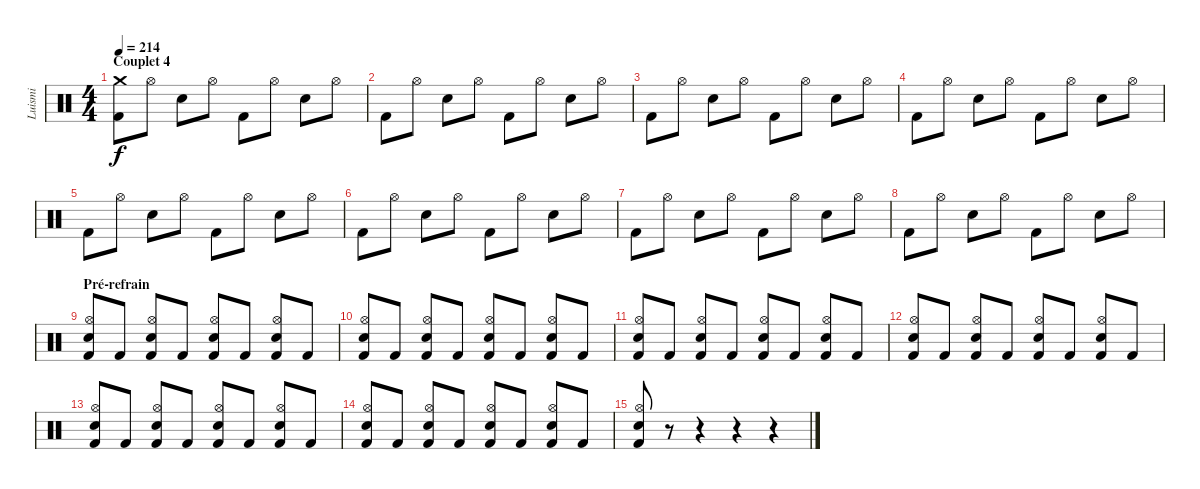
\track ("Luismi" "Luismi") {instrument percussion}
\staff {score}
\articulation defaults
\ts (4 4)
\section ("" "Couplet 4")
\tempo 214
\clef neutral
\ks c
("Crash medium (hit)" "Kick (hit) 2").8{dy f} "Hi-Hat (open)".8 "Snare (hit) 2".8 "Hi-Hat (open)".8 "Kick (hit) 2".8 "Hi-Hat (open)".8 "Snare (hit) 2".8 "Hi-Hat (open)".8 |
"Kick (hit) 2".8 "Hi-Hat (open)".8 "Snare (hit) 2".8 "Hi-Hat (open)".8 "Kick (hit) 2".8 "Hi-Hat (open)".8 "Snare (hit) 2".8 "Hi-Hat (open)".8 |
"Kick (hit) 2".8 "Hi-Hat (open)".8 "Snare (hit) 2".8 "Hi-Hat (open)".8 "Kick (hit) 2".8 "Hi-Hat (open)".8 "Snare (hit) 2".8 "Hi-Hat (open)".8 |
"Kick (hit) 2".8 "Hi-Hat (open)".8 "Snare (hit) 2".8 "Hi-Hat (open)".8 "Kick (hit) 2".8 "Hi-Hat (open)".8 "Snare (hit) 2".8 "Hi-Hat (open)".8 |
"Kick (hit) 2".8 "Hi-Hat (open)".8 "Snare (hit) 2".8 "Hi-Hat (open)".8 "Kick (hit) 2".8 "Hi-Hat (open)".8 "Snare (hit) 2".8 "Hi-Hat (open)".8 |
"Kick (hit) 2".8 "Hi-Hat (open)".8 "Snare (hit) 2".8 "Hi-Hat (open)".8 "Kick (hit) 2".8 "Hi-Hat (open)".8 "Snare (hit) 2".8 "Hi-Hat (open)".8 |
"Kick (hit) 2".8 "Hi-Hat (open)".8 "Snare (hit) 2".8 "Hi-Hat (open)".8 "Kick (hit) 2".8 "Hi-Hat (open)".8 "Snare (hit) 2".8 "Hi-Hat (open)".8 |
"Kick (hit) 2".8 "Hi-Hat (open)".8 "Snare (hit) 2".8 "Hi-Hat (open)".8 "Kick (hit) 2".8 "Hi-Hat (open)".8 "Snare (hit) 2".8 "Hi-Hat (open)".8 |
\section ("" "Pré-refrain")
("Hi-Hat (open)" "Snare (hit) 2" "Kick (hit) 2").8 "Kick (hit) 2".8 ("Hi-Hat (open)" "Snare (hit) 2" "Kick (hit) 2").8 "Kick (hit) 2".8 ("Hi-Hat (open)" "Snare (hit) 2" "Kick (hit) 2").8 "Kick (hit) 2".8 ("Hi-Hat (open)" "Snare (hit) 2" "Kick (hit) 2").8 "Kick (hit) 2".8 |
("Hi-Hat (open)" "Snare (hit) 2" "Kick (hit) 2").8 "Kick (hit) 2".8 ("Hi-Hat (open)" "Snare (hit) 2" "Kick (hit) 2").8 "Kick (hit) 2".8 ("Hi-Hat (open)" "Snare (hit) 2" "Kick (hit) 2").8 "Kick (hit) 2".8 ("Hi-Hat (open)" "Snare (hit) 2" "Kick (hit) 2").8 "Kick (hit) 2".8 |
("Hi-Hat (open)" "Snare (hit) 2" "Kick (hit) 2").8 "Kick (hit) 2".8 ("Hi-Hat (open)" "Snare (hit) 2" "Kick (hit) 2").8 "Kick (hit) 2".8 ("Hi-Hat (open)" "Snare (hit) 2" "Kick (hit) 2").8 "Kick (hit) 2".8 ("Hi-Hat (open)" "Snare (hit) 2" "Kick (hit) 2").8 "Kick (hit) 2".8 |
("Hi-Hat (open)" "Snare (hit) 2" "Kick (hit) 2").8 "Kick (hit) 2".8 ("Hi-Hat (open)" "Snare (hit) 2" "Kick (hit) 2").8 "Kick (hit) 2".8 ("Hi-Hat (open)" "Snare (hit) 2" "Kick (hit) 2").8 "Kick (hit) 2".8 ("Hi-Hat (open)" "Snare (hit) 2" "Kick (hit) 2").8 "Kick (hit) 2".8 |
("Hi-Hat (open)" "Snare (hit) 2" "Kick (hit) 2").8 "Kick (hit) 2".8 ("Hi-Hat (open)" "Snare (hit) 2" "Kick (hit) 2").8 "Kick (hit) 2".8 ("Hi-Hat (open)" "Snare (hit) 2" "Kick (hit) 2").8 "Kick (hit) 2".8 ("Hi-Hat (open)" "Snare (hit) 2" "Kick (hit) 2").8 "Kick (hit) 2".8 |
("Hi-Hat (open)" "Snare (hit) 2" "Kick (hit) 2").8 "Kick (hit) 2".8 ("Hi-Hat (open)" "Snare (hit) 2" "Kick (hit) 2").8 "Kick (hit) 2".8 ("Hi-Hat (open)" "Snare (hit) 2" "Kick (hit) 2").8 "Kick (hit) 2".8 ("Hi-Hat (open)" "Snare (hit) 2" "Kick (hit) 2").8 "Kick (hit) 2".8 |
("Hi-Hat (open)" "Snare (hit) 2" "Kick (hit) 2").8 r.8 r.4 r.4 r.4
